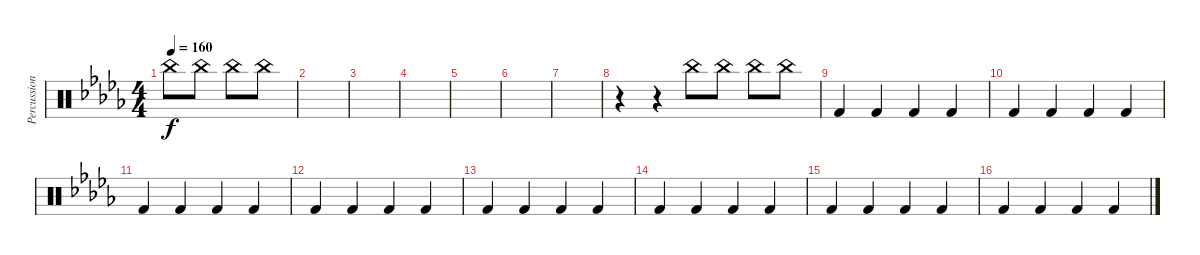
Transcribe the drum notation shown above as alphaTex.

\track ("Percussions" "Percussion") {instrument percussion}
\staff {score}
\articulation defaults
\ts (4 4)
\tempo 160
\clef neutral
\ks db "China (hit)".8{dy f} "China (hit)".8 "China (hit)".8 "China (hit)".8
|
|
|
|
|
|
|
r.4 r.4 "China (hit)".8 "China (hit)".8 "China (hit)".8 "China (hit)".8 |
"Kick (hit) 2".4 "Kick (hit) 2".4 "Kick (hit) 2".4 "Kick (hit) 2".4 |
"Kick (hit) 2".4 "Kick (hit) 2".4 "Kick (hit) 2".4 "Kick (hit) 2".4 |
"Kick (hit) 2".4 "Kick (hit) 2".4 "Kick (hit) 2".4 "Kick (hit) 2".4 |
"Kick (hit) 2".4 "Kick (hit) 2".4 "Kick (hit) 2".4 "Kick (hit) 2".4 |
"Kick (hit) 2".4 "Kick (hit) 2".4 "Kick (hit) 2".4 "Kick (hit) 2".4 |
"Kick (hit) 2".4 "Kick (hit) 2".4 "Kick (hit) 2".4 "Kick (hit) 2".4 |
"Kick (hit) 2".4 "Kick (hit) 2".4 "Kick (hit) 2".4 "Kick (hit) 2".4 |
"Kick (hit) 2".4 "Kick (hit) 2".4 "Kick (hit) 2".4 "Kick (hit) 2".4
